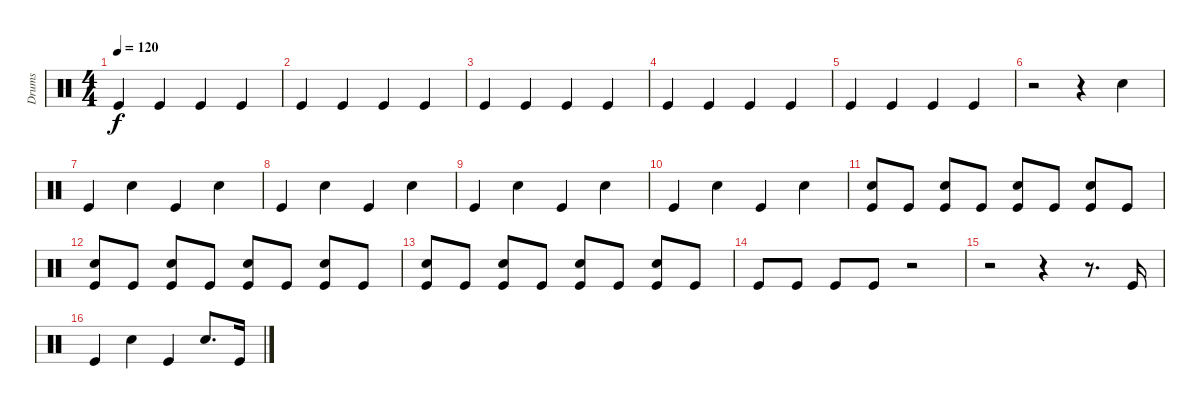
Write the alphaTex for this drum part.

\track ("Drums" "Drums") {instrument percussion}
\staff {score}
\articulation defaults
\ts (4 4)
\tempo 120
\clef neutral
\ks c "Kick (hit)".4{dy f} "Kick (hit)".4 "Kick (hit)".4 "Kick (hit)".4
|
"Kick (hit)".4 "Kick (hit)".4 "Kick (hit)".4 "Kick (hit)".4 |
"Kick (hit)".4 "Kick (hit)".4 "Kick (hit)".4 "Kick (hit)".4 |
"Kick (hit)".4 "Kick (hit)".4 "Kick (hit)".4 "Kick (hit)".4 |
"Kick (hit)".4 "Kick (hit)".4 "Kick (hit)".4 "Kick (hit)".4 |
r.2 r.4 "Snare (hit) 2".4 |
"Kick (hit)".4 "Snare (hit) 2".4 "Kick (hit)".4 "Snare (hit) 2".4 |
"Kick (hit)".4 "Snare (hit) 2".4 "Kick (hit)".4 "Snare (hit) 2".4 |
"Kick (hit)".4 "Snare (hit) 2".4 "Kick (hit)".4 "Snare (hit) 2".4 |
"Kick (hit)".4 "Snare (hit) 2".4 "Kick (hit)".4 "Snare (hit) 2".4 |
("Snare (hit) 2" "Kick (hit)").8 "Kick (hit)".8 ("Snare (hit) 2" "Kick (hit)").8 "Kick (hit)".8 ("Snare (hit) 2" "Kick (hit)").8 "Kick (hit)".8 ("Snare (hit) 2" "Kick (hit)").8 "Kick (hit)".8 |
("Snare (hit) 2" "Kick (hit)").8 "Kick (hit)".8 ("Snare (hit) 2" "Kick (hit)").8 "Kick (hit)".8 ("Snare (hit) 2" "Kick (hit)").8 "Kick (hit)".8 ("Snare (hit) 2" "Kick (hit)").8 "Kick (hit)".8 |
("Snare (hit) 2" "Kick (hit)").8 "Kick (hit)".8 ("Snare (hit) 2" "Kick (hit)").8 "Kick (hit)".8 ("Snare (hit) 2" "Kick (hit)").8 "Kick (hit)".8 ("Snare (hit) 2" "Kick (hit)").8 "Kick (hit)".8 |
"Kick (hit)".8 "Kick (hit)".8 "Kick (hit)".8 "Kick (hit)".8 r.2 |
r.2 r.4 r.8{d} "Kick (hit)".16 |
"Kick (hit)".4 "Snare (hit) 2".4 "Kick (hit)".4 "Snare (hit) 2".8{d} "Kick (hit)".16
